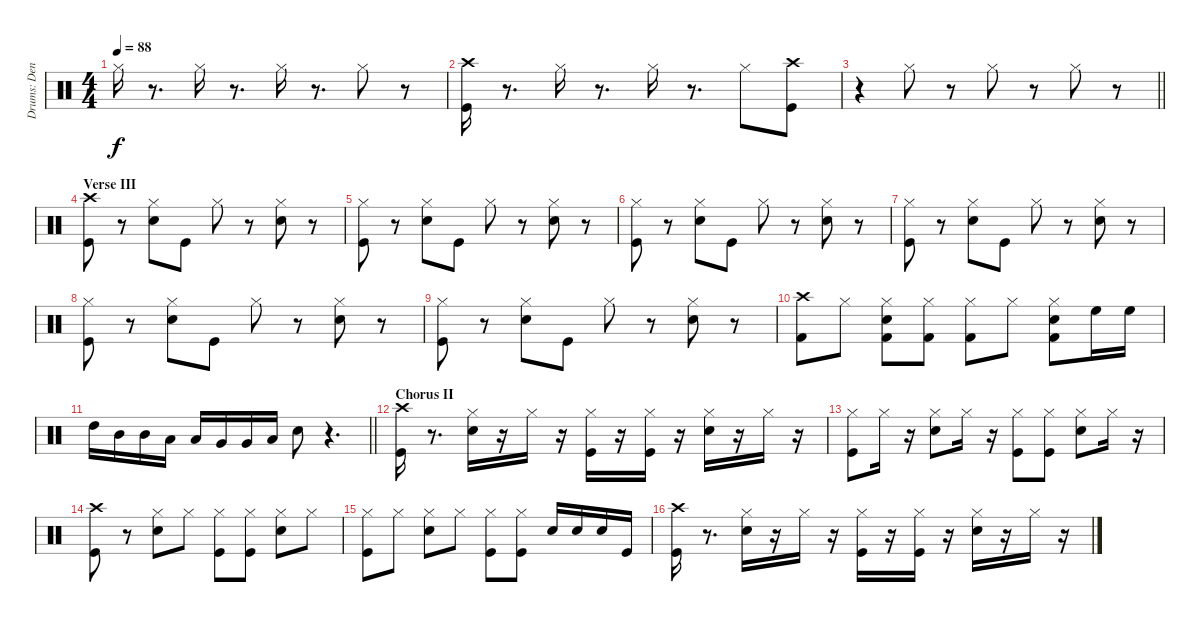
\track ("Drums: Denny Carmassi" "Drums: Den") {instrument percussion}
\staff {score}
\articulation defaults
\ts (4 4)
\tempo 88
\clef neutral
\ks c "Hi-Hat (closed)".16{dy f}
r.8{d} "Hi-Hat (closed)".16 r.8{d} "Hi-Hat (closed)".16 r.8{d} "Hi-Hat (closed)".8 r.8 |
("Crash high (hit)" "Kick (hit)").16 r.8{d} "Hi-Hat (closed)".16 r.8{d} "Hi-Hat (closed)".16 r.8{d} "Hi-Hat (closed)".8 ("Crash high (hit)" "Kick (hit)").8 |
\barLineRight lightlight
r.4 "Hi-Hat (closed)".8 r.8 "Hi-Hat (closed)".8 r.8 "Hi-Hat (closed)".8 r.8 |
\section ("" "Verse III")
("Kick (hit)" "Crash high (hit)").8 r.8 ("Hi-Hat (closed)" "Electric Snare (hit)").8 "Kick (hit)".8 "Hi-Hat (closed)".8 r.8 ("Hi-Hat (closed)" "Electric Snare (hit)").8 r.8 |
("Kick (hit)" "Hi-Hat (closed)").8 r.8 ("Hi-Hat (closed)" "Electric Snare (hit)").8 "Kick (hit)".8 "Hi-Hat (closed)".8 r.8 ("Hi-Hat (closed)" "Electric Snare (hit)").8 r.8 |
("Kick (hit)" "Hi-Hat (closed)").8 r.8 ("Hi-Hat (closed)" "Electric Snare (hit)").8 "Kick (hit)".8 "Hi-Hat (closed)".8 r.8 ("Hi-Hat (closed)" "Electric Snare (hit)").8 r.8 |
("Kick (hit)" "Hi-Hat (closed)").8 r.8 ("Hi-Hat (closed)" "Electric Snare (hit)").8 "Kick (hit)".8 "Hi-Hat (closed)".8 r.8 ("Hi-Hat (closed)" "Electric Snare (hit)").8 r.8 |
("Hi-Hat (closed)" "Kick (hit)").8 r.8 ("Hi-Hat (closed)" "Electric Snare (hit)").8 "Kick (hit)".8 "Hi-Hat (closed)".8 r.8 ("Hi-Hat (closed)" "Electric Snare (hit)").8 r.8 |
("Hi-Hat (closed)" "Kick (hit)").8 r.8 ("Hi-Hat (closed)" "Electric Snare (hit)").8 "Kick (hit)".8 "Hi-Hat (closed)".8 r.8 ("Hi-Hat (closed)" "Electric Snare (hit)").8 r.8 |
("Crash high (hit)" "Kick (hit) 2").8 "Hi-Hat (closed)".8 ("Hi-Hat (closed)" "Snare (hit) 2" "Kick (hit) 2").8 ("Hi-Hat (closed)" "Kick (hit) 2").8 ("Hi-Hat (closed)" "Kick (hit) 2").8 "Hi-Hat (closed)".8 ("Hi-Hat (closed)" "Snare (hit) 2" "Kick (hit) 2").8 "High Floor Tom (hit)".16 "High Floor Tom (hit)".16 |
\barLineRight lightlight "High Tom (hit)".16 "Mid Tom (hit)".16 "Mid Tom (hit)".16 "Low Tom (hit)".16 "Low Tom (hit)".16 "Very Low Tom (hit)".16 "Very Low Tom (hit)".16 "Low Floor Tom (hit)".16 "Snare (hit) 2".8
r.4{d} |
\section ("" "Chorus II")
("Kick (hit)" "Crash high (hit)").16 r.8{d} ("Electric Snare (hit)" "Hi-Hat (closed)").16 r.16 "Hi-Hat (closed)".16 r.16 ("Kick (hit)" "Hi-Hat (closed)").16 r.16 ("Kick (hit)" "Hi-Hat (closed)").16 r.16 ("Electric Snare (hit)" "Hi-Hat (closed)").16 r.16 "Hi-Hat (closed)".16 r.16 |
("Hi-Hat (closed)" "Kick (hit)").8 "Hi-Hat (closed)".16 r.16 ("Hi-Hat (closed)" "Electric Snare (hit)").8 "Hi-Hat (closed)".16 r.16 ("Hi-Hat (closed)" "Kick (hit)").8 ("Hi-Hat (closed)" "Kick (hit)").8 ("Hi-Hat (closed)" "Electric Snare (hit)").8 "Hi-Hat (closed)".16 r.16 |
("Crash high (hit)" "Kick (hit)").8 r.8 ("Hi-Hat (closed)" "Electric Snare (hit)").8 "Hi-Hat (closed)".8 ("Hi-Hat (closed)" "Kick (hit)").8 ("Hi-Hat (closed)" "Kick (hit)").8 ("Hi-Hat (closed)" "Electric Snare (hit)").8 "Hi-Hat (closed)".8 |
("Hi-Hat (closed)" "Kick (hit)").8 "Hi-Hat (closed)".8 ("Hi-Hat (closed)" "Electric Snare (hit)").8 "Hi-Hat (closed)".8 ("Hi-Hat (closed)" "Kick (hit)").8 ("Hi-Hat (closed)" "Kick (hit)").8 "Electric Snare (hit)".16 "Electric Snare (hit)".16 "Electric Snare (hit)".16 "Kick (hit)".16 |
("Crash high (hit)" "Kick (hit)").16 r.8{d} ("Hi-Hat (closed)" "Electric Snare (hit)").16 r.16 "Hi-Hat (closed)".16 r.16 ("Hi-Hat (closed)" "Kick (hit)").16 r.16 ("Hi-Hat (closed)" "Kick (hit)").16 r.16 ("Hi-Hat (closed)" "Electric Snare (hit)").16 r.16 "Hi-Hat (closed)".16 r.16
